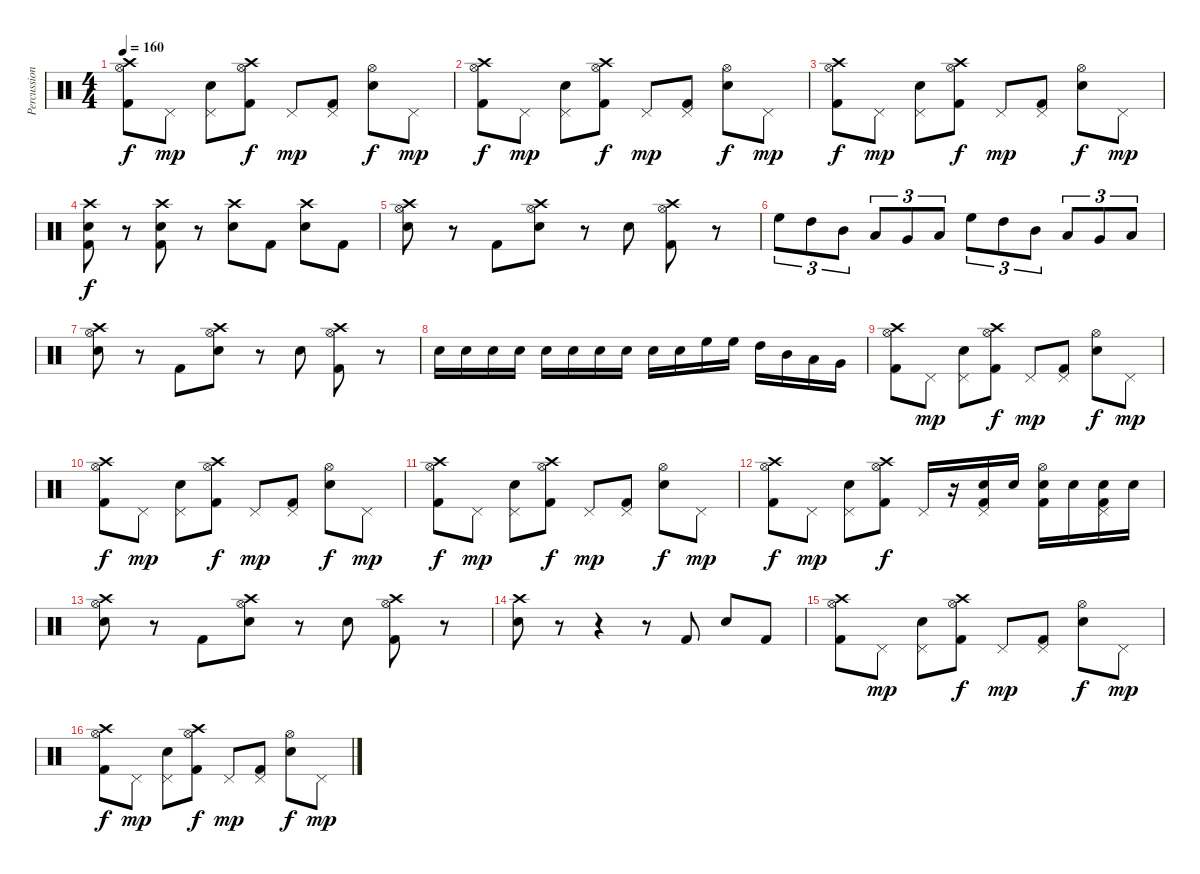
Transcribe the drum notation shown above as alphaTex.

\track ("Percussion" "Percussion") {instrument percussion}
\staff {score}
\articulation defaults
\ts (4 4)
\tempo 160
\clef neutral
\ks c
("Hi-Hat (open)" "Crash high (hit)" "Kick (hit) 2").8{dy f} "Pedal Hi-Hat (hit)".8{dy mp} ("Pedal Hi-Hat (hit)" "Snare (hit) 2").8 ("Hi-Hat (open)" "Crash high (hit)" "Kick (hit) 2").8{dy f} "Pedal Hi-Hat (hit)".8{dy mp} ("Pedal Hi-Hat (hit)" "Kick (hit) 2").8 ("Hi-Hat (open)" "Snare (hit) 2").8{dy f} "Pedal Hi-Hat (hit)".8{dy mp} |
("Hi-Hat (open)" "Crash high (hit)" "Kick (hit) 2").8{dy f} "Pedal Hi-Hat (hit)".8{dy mp} ("Pedal Hi-Hat (hit)" "Snare (hit) 2").8 ("Hi-Hat (open)" "Crash high (hit)" "Kick (hit) 2").8{dy f} "Pedal Hi-Hat (hit)".8{dy mp} ("Pedal Hi-Hat (hit)" "Kick (hit) 2").8 ("Hi-Hat (open)" "Snare (hit) 2").8{dy f} "Pedal Hi-Hat (hit)".8{dy mp} |
("Hi-Hat (open)" "Crash high (hit)" "Kick (hit) 2").8{dy f} "Pedal Hi-Hat (hit)".8{dy mp} ("Pedal Hi-Hat (hit)" "Snare (hit) 2").8 ("Hi-Hat (open)" "Crash high (hit)" "Kick (hit) 2").8{dy f} "Pedal Hi-Hat (hit)".8{dy mp} ("Pedal Hi-Hat (hit)" "Kick (hit) 2").8 ("Hi-Hat (open)" "Snare (hit) 2").8{dy f} "Pedal Hi-Hat (hit)".8{dy mp} |
("Crash high (hit)" "Snare (hit) 2" "Kick (hit) 2").8{dy f} r.8 ("Crash high (hit)" "Snare (hit) 2" "Kick (hit) 2").8 r.8 ("Crash high (hit)" "Snare (hit) 2").8 "Kick (hit) 2".8 ("Crash high (hit)" "Snare (hit) 2").8 "Kick (hit) 2".8 |
("Hi-Hat (open)" "Crash high (hit)" "Snare (hit) 2").8 r.8 "Kick (hit) 2".8 ("Hi-Hat (open)" "Crash high (hit)" "Snare (hit) 2").8 r.8 "Snare (hit) 2".8 ("Hi-Hat (open)" "Crash high (hit)" "Kick (hit) 2").8 r.8 |
"High Floor Tom (hit)".8{tu (3 2)} "High Tom (hit)".8{tu (3 2)} "Mid Tom (hit)".8{tu (3 2)} "Low Tom (hit)".8{tu (3 2)} "Very Low Tom (hit)".8{tu (3 2)} "Low Floor Tom (hit)".8{tu (3 2)} "High Floor Tom (hit)".8{tu (3 2)} "High Tom (hit)".8{tu (3 2)} "Mid Tom (hit)".8{tu (3 2)} "Low Tom (hit)".8{tu (3 2)} "Very Low Tom (hit)".8{tu (3 2)} "Low Floor Tom (hit)".8{tu (3 2)} |
("Hi-Hat (open)" "Crash high (hit)" "Snare (hit) 2").8 r.8 "Kick (hit) 2".8 ("Hi-Hat (open)" "Crash high (hit)" "Snare (hit) 2").8 r.8 "Snare (hit) 2".8 ("Hi-Hat (open)" "Crash high (hit)" "Kick (hit) 2").8 r.8 |
"Snare (hit) 2".16 "Snare (hit) 2".16 "Snare (hit) 2".16 "Snare (hit) 2".16 "Snare (hit) 2".16 "Snare (hit) 2".16 "Snare (hit) 2".16 "Snare (hit) 2".16 "Snare (hit) 2".16 "Snare (hit) 2".16 "High Floor Tom (hit)".16 "High Floor Tom (hit)".16 "High Tom (hit)".16 "Mid Tom (hit)".16 "Low Tom (hit)".16 "Very Low Tom (hit)".16 |
("Hi-Hat (open)" "Crash high (hit)" "Kick (hit) 2").8 "Pedal Hi-Hat (hit)".8{dy mp} ("Pedal Hi-Hat (hit)" "Snare (hit) 2").8 ("Hi-Hat (open)" "Crash high (hit)" "Kick (hit) 2").8{dy f} "Pedal Hi-Hat (hit)".8{dy mp} ("Pedal Hi-Hat (hit)" "Kick (hit) 2").8 ("Hi-Hat (open)" "Snare (hit) 2").8{dy f} "Pedal Hi-Hat (hit)".8{dy mp} |
("Hi-Hat (open)" "Crash high (hit)" "Kick (hit) 2").8{dy f} "Pedal Hi-Hat (hit)".8{dy mp} ("Pedal Hi-Hat (hit)" "Snare (hit) 2").8 ("Hi-Hat (open)" "Crash high (hit)" "Kick (hit) 2").8{dy f} "Pedal Hi-Hat (hit)".8{dy mp} ("Pedal Hi-Hat (hit)" "Kick (hit) 2").8 ("Hi-Hat (open)" "Snare (hit) 2").8{dy f} "Pedal Hi-Hat (hit)".8{dy mp} |
("Hi-Hat (open)" "Crash high (hit)" "Kick (hit) 2").8{dy f} "Pedal Hi-Hat (hit)".8{dy mp} ("Pedal Hi-Hat (hit)" "Snare (hit) 2").8 ("Hi-Hat (open)" "Crash high (hit)" "Kick (hit) 2").8{dy f} "Pedal Hi-Hat (hit)".8{dy mp} ("Pedal Hi-Hat (hit)" "Kick (hit) 2").8 ("Hi-Hat (open)" "Snare (hit) 2").8{dy f} "Pedal Hi-Hat (hit)".8{dy mp} |
("Hi-Hat (open)" "Crash high (hit)" "Kick (hit) 2").8{dy f} "Pedal Hi-Hat (hit)".8{dy mp} ("Pedal Hi-Hat (hit)" "Snare (hit) 2").8 ("Hi-Hat (open)" "Crash high (hit)" "Kick (hit) 2").8{dy f} "Pedal Hi-Hat (hit)".16 r.16 ("Pedal Hi-Hat (hit)" "Snare (hit) 2" "Kick (hit) 2").16 "Snare (hit) 2".16 ("Hi-Hat (open)" "Snare (hit) 2" "Kick (hit) 2").16 "Snare (hit) 2".16 ("Pedal Hi-Hat (hit)" "Snare (hit) 2" "Kick (hit) 2").16 "Snare (hit) 2".16 |
("Hi-Hat (open)" "Crash high (hit)" "Snare (hit) 2").8 r.8 "Kick (hit) 2".8 ("Hi-Hat (open)" "Crash high (hit)" "Snare (hit) 2").8 r.8 "Snare (hit) 2".8 ("Hi-Hat (open)" "Crash high (hit)" "Kick (hit) 2").8 r.8 |
("Crash high (hit)" "Snare (hit) 2").8 r.8 r.4 r.8 "Kick (hit) 2".8 "Snare (hit) 2".8 "Kick (hit) 2".8 |
("Hi-Hat (open)" "Crash high (hit)" "Kick (hit) 2").8 "Pedal Hi-Hat (hit)".8{dy mp} ("Pedal Hi-Hat (hit)" "Snare (hit) 2").8 ("Hi-Hat (open)" "Crash high (hit)" "Kick (hit) 2").8{dy f} "Pedal Hi-Hat (hit)".8{dy mp} ("Pedal Hi-Hat (hit)" "Kick (hit) 2").8 ("Hi-Hat (open)" "Snare (hit) 2").8{dy f} "Pedal Hi-Hat (hit)".8{dy mp} |
("Hi-Hat (open)" "Crash high (hit)" "Kick (hit) 2").8{dy f} "Pedal Hi-Hat (hit)".8{dy mp} ("Pedal Hi-Hat (hit)" "Snare (hit) 2").8 ("Hi-Hat (open)" "Crash high (hit)" "Kick (hit) 2").8{dy f} "Pedal Hi-Hat (hit)".8{dy mp} ("Pedal Hi-Hat (hit)" "Kick (hit) 2").8 ("Hi-Hat (open)" "Snare (hit) 2").8{dy f} "Pedal Hi-Hat (hit)".8{dy mp}
